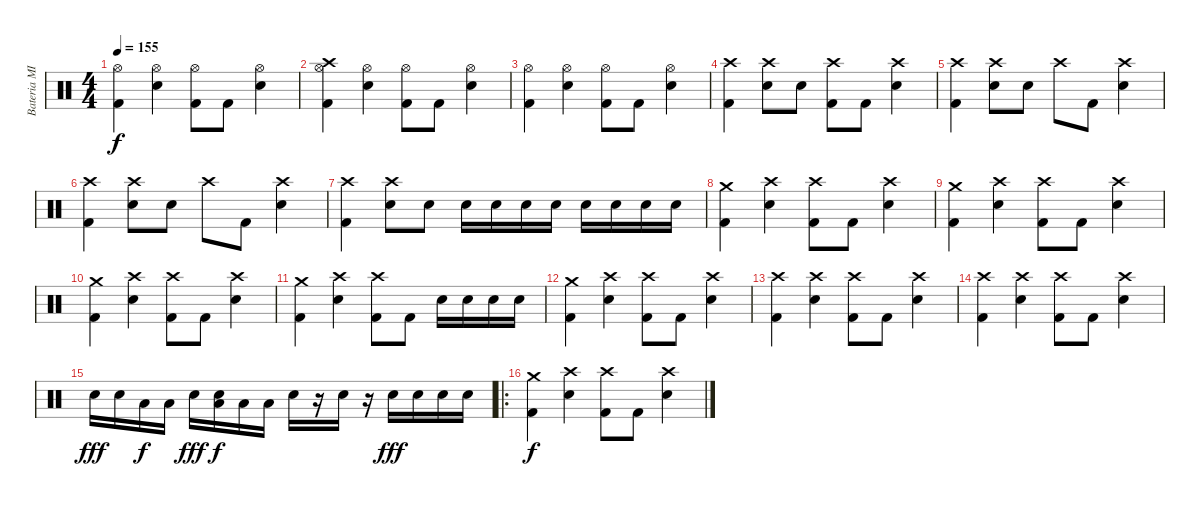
\track ("Bateria MIDI" "Bateria MI") {instrument percussion bank 1}
\staff {score}
\articulation defaults
\ts (4 4)
\tempo 155
\clef neutral
\ks c
("Hi-Hat (open)" "Kick (hit) 2").4{dy f} ("Hi-Hat (open)" "Snare (hit) 2").4 ("Hi-Hat (open)" "Kick (hit) 2").8 "Kick (hit) 2".8 ("Hi-Hat (open)" "Snare (hit) 2").4 |
("Hi-Hat (open)" "Crash high (hit)" "Kick (hit) 2").4 ("Hi-Hat (open)" "Snare (hit) 2").4 ("Hi-Hat (open)" "Kick (hit) 2").8 "Kick (hit) 2".8 ("Hi-Hat (open)" "Snare (hit) 2").4 |
("Hi-Hat (open)" "Kick (hit) 2").4 ("Hi-Hat (open)" "Snare (hit) 2").4 ("Hi-Hat (open)" "Kick (hit) 2").8 "Kick (hit) 2".8 ("Hi-Hat (open)" "Snare (hit) 2").4 |
("Crash high (hit)" "Kick (hit) 2").4 ("Crash high (hit)" "Snare (hit) 2").8 "Snare (hit) 2".8 ("Crash high (hit)" "Kick (hit) 2").8 "Kick (hit) 2".8 ("Crash high (hit)" "Snare (hit) 2").4 |
("Crash high (hit)" "Kick (hit) 2").4 ("Crash high (hit)" "Snare (hit) 2").8 "Snare (hit) 2".8 "Crash high (hit)".8 "Kick (hit) 2".8 ("Crash high (hit)" "Snare (hit) 2").4 |
("Crash high (hit)" "Kick (hit) 2").4 ("Crash high (hit)" "Snare (hit) 2").8 "Snare (hit) 2".8 "Crash high (hit)".8 "Kick (hit) 2".8 ("Crash high (hit)" "Snare (hit) 2").4 |
("Crash high (hit)" "Kick (hit) 2").4 ("Crash high (hit)" "Snare (hit) 2").8 "Snare (hit) 2".8 "Snare (hit) 2".16 "Snare (hit) 2".16 "Snare (hit) 2".16 "Snare (hit) 2".16 "Snare (hit) 2".16 "Snare (hit) 2".16 "Snare (hit) 2".16 "Snare (hit) 2".16 |
("Crash medium (hit)" "Kick (hit) 2").4 ("Crash high (hit)" "Snare (hit) 2").4 ("Crash high (hit)" "Kick (hit) 2").8 "Kick (hit) 2".8 ("Crash high (hit)" "Snare (hit) 2").4 |
("Crash medium (hit)" "Kick (hit) 2").4 ("Crash high (hit)" "Snare (hit) 2").4 ("Crash high (hit)" "Kick (hit) 2").8 "Kick (hit) 2".8 ("Crash high (hit)" "Snare (hit) 2").4 |
("Crash medium (hit)" "Kick (hit) 2").4 ("Crash high (hit)" "Snare (hit) 2").4 ("Crash high (hit)" "Kick (hit) 2").8 "Kick (hit) 2".8 ("Crash high (hit)" "Snare (hit) 2").4 |
("Crash medium (hit)" "Kick (hit) 2").4 ("Crash high (hit)" "Snare (hit) 2").4 ("Crash high (hit)" "Kick (hit) 2").8 "Kick (hit) 2".8 "Snare (hit) 2".16 "Snare (hit) 2".16 "Snare (hit) 2".16 "Snare (hit) 2".16 |
("Crash medium (hit)" "Kick (hit) 2").4 ("Crash high (hit)" "Snare (hit) 2").4 ("Crash high (hit)" "Kick (hit) 2").8 "Kick (hit) 2".8 ("Crash high (hit)" "Snare (hit) 2").4 |
("Crash high (hit)" "Kick (hit) 2").4 ("Crash high (hit)" "Snare (hit) 2").4 ("Crash high (hit)" "Kick (hit) 2").8 "Kick (hit) 2".8 ("Crash high (hit)" "Snare (hit) 2").4 |
("Crash high (hit)" "Kick (hit) 2").4 ("Crash high (hit)" "Snare (hit) 2").4 ("Crash high (hit)" "Kick (hit) 2").8 "Kick (hit) 2".8 ("Crash high (hit)" "Snare (hit) 2").4 |
"Snare (hit) 2".16{dy fff} "Snare (hit) 2".16 "Low Floor Tom (hit)".16{dy f} "Low Floor Tom (hit)".16 "Snare (hit) 2".16{dy fff} ("Snare (hit) 2" "Low Floor Tom (hit)").16{dy f} "Low Floor Tom (hit)".16 "Low Floor Tom (hit)".16 "Snare (hit) 2".16 r.16 "Snare (hit) 2".16 r.16 "Snare (hit) 2".16{dy fff} "Snare (hit) 2".16 "Snare (hit) 2".16 "Snare (hit) 2".16 |
\ro
("Crash medium (hit)" "Kick (hit) 2").4{dy f} ("Crash high (hit)" "Snare (hit) 2").4 ("Crash high (hit)" "Kick (hit) 2").8 "Kick (hit) 2".8 ("Crash high (hit)" "Snare (hit) 2").4
